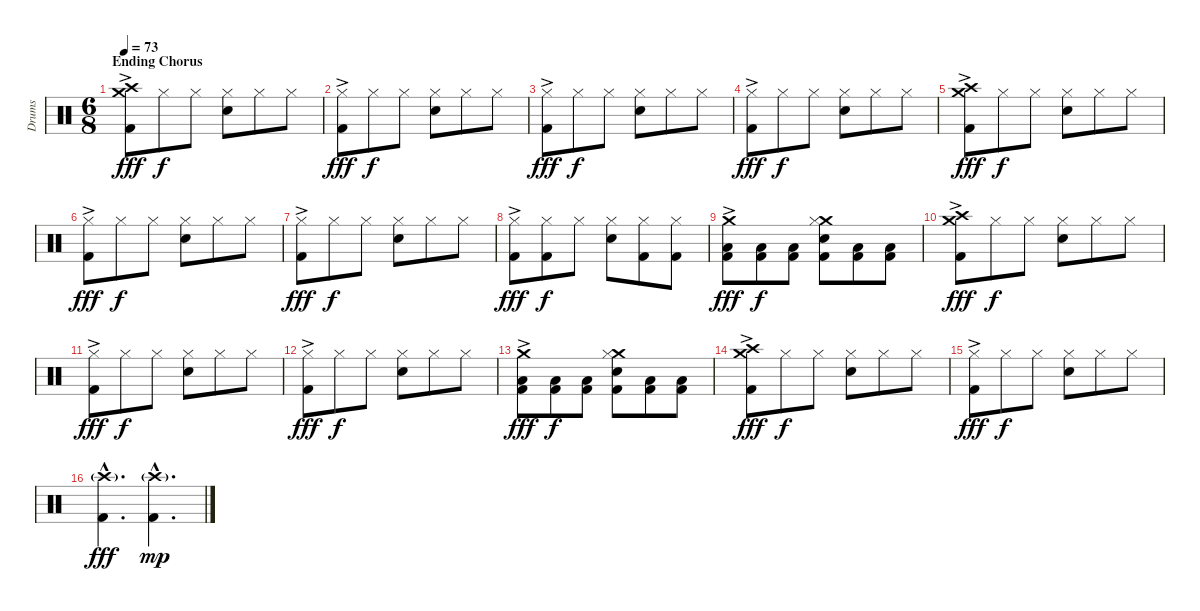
\track ("Drums" "Drums") {instrument percussion}
\staff {score}
\articulation defaults
\ts (6 8)
\section ("" "Ending Chorus")
\tempo 73
\clef neutral
\ks c
("Crash high (hit)" "Crash medium (hit)" "Kick (hit) 2"{ac}).8{dy fff} "Hi-Hat (closed)".8{dy f} "Hi-Hat (closed)".8 ("Hi-Hat (closed)" "Electric Snare (hit)").8 "Hi-Hat (closed)".8 "Hi-Hat (closed)".8 |
("Hi-Hat (closed)" "Kick (hit) 2"{ac}).8{dy fff} "Hi-Hat (closed)".8{dy f} "Hi-Hat (closed)".8 ("Hi-Hat (closed)" "Electric Snare (hit)").8 "Hi-Hat (closed)".8 "Hi-Hat (closed)".8 |
("Hi-Hat (closed)" "Kick (hit) 2"{ac}).8{dy fff} "Hi-Hat (closed)".8{dy f} "Hi-Hat (closed)".8 ("Hi-Hat (closed)" "Electric Snare (hit)").8 "Hi-Hat (closed)".8 "Hi-Hat (closed)".8 |
("Hi-Hat (closed)" "Kick (hit) 2"{ac}).8{dy fff} "Hi-Hat (closed)".8{dy f} "Hi-Hat (closed)".8 ("Hi-Hat (closed)" "Electric Snare (hit)").8 "Hi-Hat (closed)".8 "Hi-Hat (closed)".8 |
("Crash high (hit)" "Crash medium (hit)" "Kick (hit) 2"{ac}).8{dy fff} "Hi-Hat (closed)".8{dy f} "Hi-Hat (closed)".8 ("Hi-Hat (closed)" "Electric Snare (hit)").8 "Hi-Hat (closed)".8 "Hi-Hat (closed)".8 |
("Hi-Hat (closed)" "Kick (hit) 2"{ac}).8{dy fff} "Hi-Hat (closed)".8{dy f} "Hi-Hat (closed)".8 ("Hi-Hat (closed)" "Electric Snare (hit)").8 "Hi-Hat (closed)".8 "Hi-Hat (closed)".8 |
("Hi-Hat (closed)" "Kick (hit) 2"{ac}).8{dy fff} "Hi-Hat (closed)".8{dy f} "Hi-Hat (closed)".8 ("Hi-Hat (closed)" "Electric Snare (hit)").8 "Hi-Hat (closed)".8 "Hi-Hat (closed)".8 |
("Hi-Hat (closed)" "Kick (hit) 2"{ac}).8{dy fff} ("Hi-Hat (closed)" "Kick (hit) 2").8{dy f} "Hi-Hat (closed)".8 ("Hi-Hat (closed)" "Electric Snare (hit)").8 ("Hi-Hat (closed)" "Kick (hit) 2").8 ("Hi-Hat (closed)" "Kick (hit) 2").8 |
("Crash medium (hit)" "Low Floor Tom (hit)" "Kick (hit) 2"{ac}).8{dy fff} ("Low Floor Tom (hit)" "Kick (hit) 2").8{dy f} ("Low Floor Tom (hit)" "Kick (hit) 2").8 ("Crash medium (hit)" "Hi-Hat (closed)" "Electric Snare (hit)" "Kick (hit) 2").8 ("Low Floor Tom (hit)" "Kick (hit) 2").8 ("Low Floor Tom (hit)" "Kick (hit) 2").8 |
("Crash high (hit)" "Crash medium (hit)" "Kick (hit) 2"{ac}).8{dy fff} "Hi-Hat (closed)".8{dy f} "Hi-Hat (closed)".8 ("Hi-Hat (closed)" "Electric Snare (hit)").8 "Hi-Hat (closed)".8 "Hi-Hat (closed)".8 |
("Hi-Hat (closed)" "Kick (hit) 2"{ac}).8{dy fff} "Hi-Hat (closed)".8{dy f} "Hi-Hat (closed)".8 ("Hi-Hat (closed)" "Electric Snare (hit)").8 "Hi-Hat (closed)".8 "Hi-Hat (closed)".8 |
("Hi-Hat (closed)" "Kick (hit) 2"{ac}).8{dy fff} "Hi-Hat (closed)".8{dy f} "Hi-Hat (closed)".8 ("Hi-Hat (closed)" "Electric Snare (hit)").8 "Hi-Hat (closed)".8 "Hi-Hat (closed)".8 |
("Crash medium (hit)" "Low Floor Tom (hit)" "Kick (hit) 2"{ac}).8{dy fff} ("Low Floor Tom (hit)" "Kick (hit) 2").8{dy f} ("Low Floor Tom (hit)" "Kick (hit) 2").8 ("Crash medium (hit)" "Hi-Hat (closed)" "Electric Snare (hit)" "Kick (hit) 2").8 ("Low Floor Tom (hit)" "Kick (hit) 2").8 ("Low Floor Tom (hit)" "Kick (hit) 2").8 |
("Crash high (hit)" "Crash medium (hit)" "Kick (hit) 2"{ac}).8{dy fff} "Hi-Hat (closed)".8{dy f} "Hi-Hat (closed)".8 ("Hi-Hat (closed)" "Electric Snare (hit)").8 "Hi-Hat (closed)".8 "Hi-Hat (closed)".8 |
("Hi-Hat (closed)" "Kick (hit) 2"{ac}).8{dy fff} "Hi-Hat (closed)".8{dy f} "Hi-Hat (closed)".8 ("Hi-Hat (closed)" "Electric Snare (hit)").8 "Hi-Hat (closed)".8 "Hi-Hat (closed)".8 |
("Crash high (hit)"{g hac} "Kick (hit) 2"{hac}).4{d dy fff} ("Crash high (hit)"{g hac} "Kick (hit) 2"{hac}).4{d dy mp}
